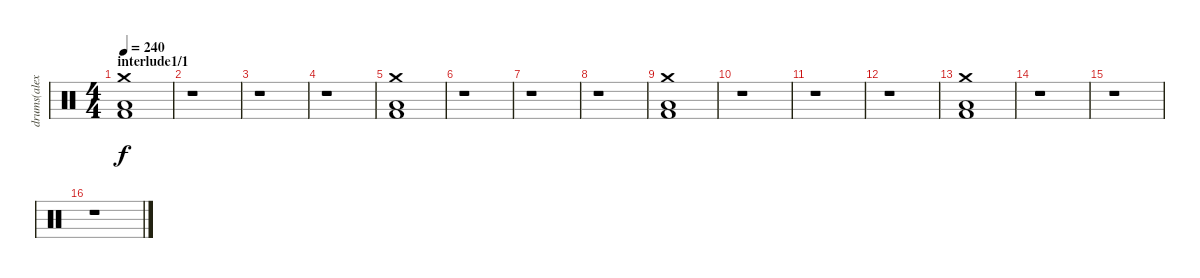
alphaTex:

\track ("drums(alex holzshwart)" "drums(alex") {instrument percussion}
\staff {score}
\articulation defaults
\ts (4 4)
\section ("" "interlude1/1")
\tempo 240
\clef neutral
\ks c
("Crash medium (hit)" "Low Floor Tom (hit)" "Kick (hit) 2").1{dy f} |
r.1 |
r.1 |
r.1 |
("Crash medium (hit)" "Low Floor Tom (hit)" "Kick (hit) 2").1 |
r.1 |
r.1 |
r.1 |
("Crash medium (hit)" "Low Floor Tom (hit)" "Kick (hit) 2").1 |
r.1 |
r.1 |
r.1 |
("Crash medium (hit)" "Low Floor Tom (hit)" "Kick (hit) 2").1 |
r.1 |
r.1 |
r.1
